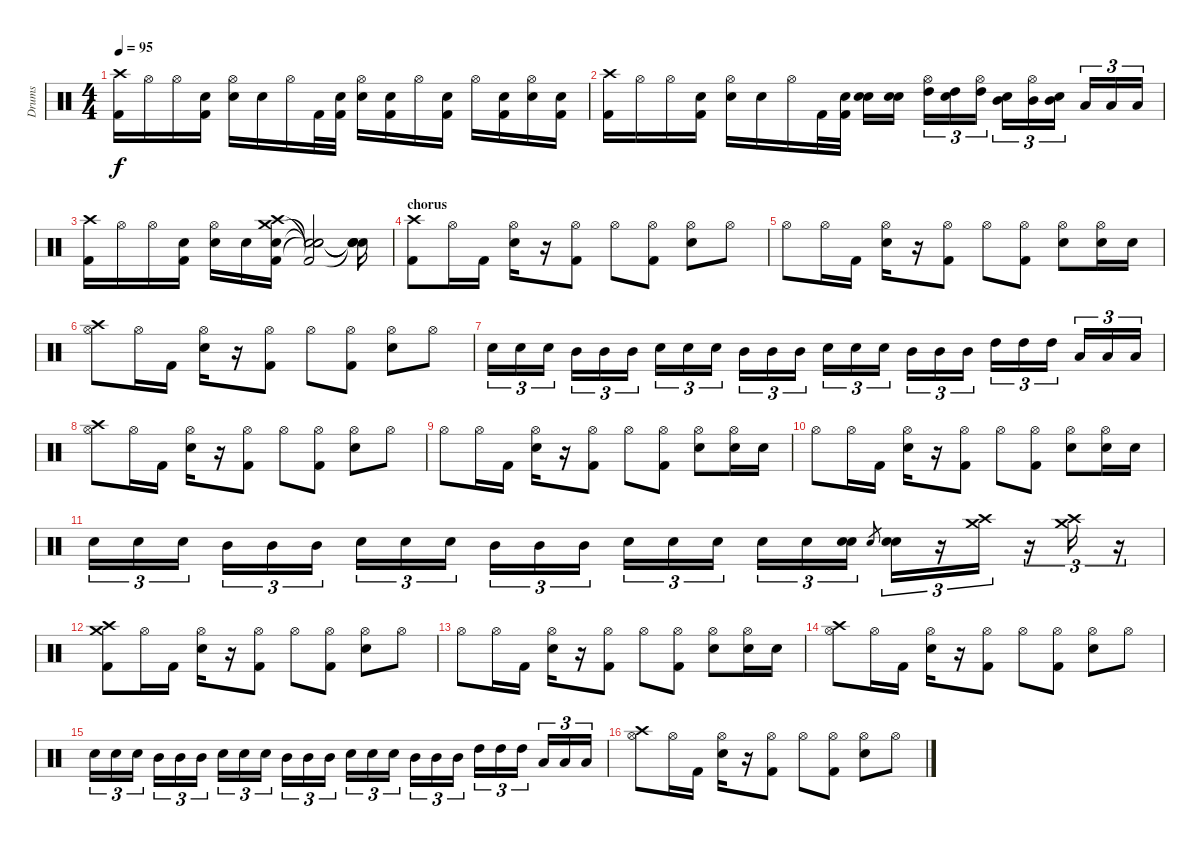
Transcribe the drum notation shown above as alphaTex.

\track ("Drums" "Drums") {instrument percussion}
\staff {score}
\articulation defaults
\ts (4 4)
\tempo 95
\clef neutral
\ks c
("Crash high (hit)" "Kick (hit) 2").16{dy f} "Hi-Hat (open)"{x}.16 "Hi-Hat (open)".16 ("Snare (hit)"{x} "Kick (hit) 2").16 ("Hi-Hat (open)" "Electric Snare (hit)").16 "Snare (hit)"{x}.16 "Hi-Hat (open)".16 "Kick (hit) 2".32 ("Snare (hit)"{x} "Kick (hit) 2").32 ("Hi-Hat (open)" "Electric Snare (hit)").16 ("Snare (hit)"{x} "Kick (hit) 2").16 "Hi-Hat (open)"{x}.16 ("Snare (hit)"{x} "Kick (hit) 2").16 "Hi-Hat (open)"{x}.16 ("Snare (hit)"{x} "Kick (hit) 2").16 ("Hi-Hat (open)"{x} "Electric Snare (hit)").16 ("Snare (hit)"{x} "Kick (hit) 2").16 |
("Crash high (hit)" "Kick (hit) 2").16 "Hi-Hat (open)"{x}.16 "Hi-Hat (open)".16 ("Snare (hit)"{x} "Kick (hit) 2").16 ("Hi-Hat (open)" "Electric Snare (hit)").16 "Snare (hit)"{x}.16 "Hi-Hat (open)".16 "Kick (hit) 2".32 ("Snare (hit)"{x} "Kick (hit) 2").32 ("Electric Snare (hit)" "Electric Snare (hit)").16 ("Snare (hit)"{x} "Electric Snare (hit)").16 ("Hi-Hat (open)"{x} "High Tom (hit)").16{tu (3 2)} ("Snare (hit)"{x} "High Tom (hit)").16{tu (3 2)} ("Hi-Hat (open)"{x} "High Tom (hit)").16{tu (3 2)} ("Snare (hit)"{x} "Mid Tom (hit)").16{tu (3 2)} ("Hi-Hat (open)"{x} "Mid Tom (hit)").16{tu (3 2)} ("Snare (hit)"{x} "Mid Tom (hit)").16{tu (3 2)} "Low Tom (hit)".16{tu (3 2)} "Low Tom (hit)".16{tu (3 2)} "Low Tom (hit)".16{tu (3 2)} |
("Crash high (hit)" "Kick (hit) 2").16 "Hi-Hat (open)"{x}.16 "Hi-Hat (open)".16 ("Snare (hit)"{x} "Kick (hit) 2").16 ("Hi-Hat (open)" "Electric Snare (hit)").16 "Snare (hit)"{x}.16 ("Crash medium (hit)" "Crash high (hit)" "Electric Snare (hit)" "Kick (hit) 2").16 ("Snare (hit)"{t} "Kick (hit) 2"{t} "Snare (hit)"{t} "Snare (hit)"{t}).2 ("Snare (hit)"{t} "Snare (hit)"{t} "Snare (hit)"{t} "Snare (hit)"{t}).16 |
\section ("" "chorus")
("Crash high (hit)" "Kick (hit) 2").8 "Hi-Hat (open)".16 "Kick (hit) 2".16 ("Hi-Hat (open)" "Electric Snare (hit)").16 r.16 ("Hi-Hat (open)" "Kick (hit) 2").8 "Hi-Hat (open)".8 ("Hi-Hat (open)" "Kick (hit) 2").8 ("Hi-Hat (open)" "Electric Snare (hit)").8 "Hi-Hat (open)".8 |
"Hi-Hat (open)".8 "Hi-Hat (open)".16 "Kick (hit) 2".16 ("Hi-Hat (open)" "Electric Snare (hit)").16 r.16 ("Hi-Hat (open)" "Kick (hit) 2").8 "Hi-Hat (open)".8 ("Hi-Hat (open)" "Kick (hit) 2").8 ("Hi-Hat (open)" "Electric Snare (hit)").8 ("Hi-Hat (open)" "Electric Snare (hit)").16 "Electric Snare (hit)".16 |
("Hi-Hat (open)" "Crash high (hit)").8 "Hi-Hat (open)".16 "Kick (hit) 2".16 ("Hi-Hat (open)" "Electric Snare (hit)").16 r.16 ("Hi-Hat (open)" "Kick (hit) 2").8 "Hi-Hat (open)".8 ("Hi-Hat (open)" "Kick (hit) 2").8 ("Hi-Hat (open)" "Electric Snare (hit)").8 "Hi-Hat (open)".8 |
"Electric Snare (hit)".16{tu (3 2)} "Electric Snare (hit)".16{tu (3 2)} "Electric Snare (hit)".16{tu (3 2)} "Mid Tom (hit)".16{tu (3 2)} "Mid Tom (hit)".16{tu (3 2)} "Mid Tom (hit)".16{tu (3 2)} "Electric Snare (hit)".16{tu (3 2)} "Electric Snare (hit)".16{tu (3 2)} "Electric Snare (hit)".16{tu (3 2)} "Mid Tom (hit)".16{tu (3 2)} "Mid Tom (hit)".16{tu (3 2)} "Mid Tom (hit)".16{tu (3 2)} "Electric Snare (hit)".16{tu (3 2)} "Electric Snare (hit)".16{tu (3 2)} "Electric Snare (hit)".16{tu (3 2)} "Mid Tom (hit)".16{tu (3 2)} "Mid Tom (hit)".16{tu (3 2)} "Mid Tom (hit)".16{tu (3 2)} "High Tom (hit)".16{tu (3 2)} "High Tom (hit)".16{tu (3 2)} "High Tom (hit)".16{tu (3 2)} "Low Tom (hit)".16{tu (3 2)} "Low Tom (hit)".16{tu (3 2)} "Low Tom (hit)".16{tu (3 2)} |
("Hi-Hat (open)" "Crash high (hit)").8 "Hi-Hat (open)".16 "Kick (hit) 2".16 ("Hi-Hat (open)" "Electric Snare (hit)").16 r.16 ("Hi-Hat (open)" "Kick (hit) 2").8 "Hi-Hat (open)".8 ("Hi-Hat (open)" "Kick (hit) 2").8 ("Hi-Hat (open)" "Electric Snare (hit)").8 "Hi-Hat (open)".8 |
"Hi-Hat (open)".8 "Hi-Hat (open)".16 "Kick (hit) 2".16 ("Hi-Hat (open)" "Electric Snare (hit)").16 r.16 ("Hi-Hat (open)" "Kick (hit) 2").8 "Hi-Hat (open)".8 ("Hi-Hat (open)" "Kick (hit) 2").8 ("Hi-Hat (open)" "Electric Snare (hit)").8 ("Hi-Hat (open)" "Electric Snare (hit)").16 "Electric Snare (hit)".16 |
"Hi-Hat (open)".8 "Hi-Hat (open)".16 "Kick (hit) 2".16 ("Hi-Hat (open)" "Electric Snare (hit)").16 r.16 ("Hi-Hat (open)" "Kick (hit) 2").8 "Hi-Hat (open)".8 ("Hi-Hat (open)" "Kick (hit) 2").8 ("Hi-Hat (open)" "Electric Snare (hit)").8 ("Hi-Hat (open)" "Electric Snare (hit)").16 "Electric Snare (hit)".16 |
"Electric Snare (hit)".16{tu (3 2)} "Electric Snare (hit)".16{tu (3 2)} "Electric Snare (hit)".16{tu (3 2)} "Mid Tom (hit)".16{tu (3 2)} "Mid Tom (hit)".16{tu (3 2)} "Mid Tom (hit)".16{tu (3 2)} "Electric Snare (hit)".16{tu (3 2)} "Electric Snare (hit)".16{tu (3 2)} "Electric Snare (hit)".16{tu (3 2)} "Mid Tom (hit)".16{tu (3 2)} "Mid Tom (hit)".16{tu (3 2)} "Mid Tom (hit)".16{tu (3 2)} "Electric Snare (hit)".16{tu (3 2)} "Electric Snare (hit)".16{tu (3 2)} "Electric Snare (hit)".16{tu (3 2)} "Electric Snare (hit)".16{tu (3 2)} "Electric Snare (hit)".16{tu (3 2)} ("Electric Snare (hit)" "Electric Snare (hit)").16{tu (3 2)} "Electric Snare (hit)".8{gr} ("Electric Snare (hit)" "Electric Snare (hit)").16{tu (3 2)} r.16{tu (3 2)} ("Crash high (hit)" "Crash medium (hit)").16{tu (3 2)} r.16{tu (3 2)} ("Crash high (hit)" "Crash medium (hit)").16{tu (3 2)} r.16{tu (3 2)} |
("Crash medium (hit)" "Crash high (hit)" "Kick (hit) 2").8 "Hi-Hat (open)".16 "Kick (hit) 2".16 ("Hi-Hat (open)" "Electric Snare (hit)").16 r.16 ("Hi-Hat (open)" "Kick (hit) 2").8 "Hi-Hat (open)".8 ("Hi-Hat (open)" "Kick (hit) 2").8 ("Hi-Hat (open)" "Electric Snare (hit)").8 "Hi-Hat (open)".8 |
"Hi-Hat (open)".8 "Hi-Hat (open)".16 "Kick (hit) 2".16 ("Hi-Hat (open)" "Electric Snare (hit)").16 r.16 ("Hi-Hat (open)" "Kick (hit) 2").8 "Hi-Hat (open)".8 ("Hi-Hat (open)" "Kick (hit) 2").8 ("Hi-Hat (open)" "Electric Snare (hit)").8 ("Hi-Hat (open)" "Electric Snare (hit)").16 "Electric Snare (hit)".16 |
("Hi-Hat (open)" "Crash high (hit)").8 "Hi-Hat (open)".16 "Kick (hit) 2".16 ("Hi-Hat (open)" "Electric Snare (hit)").16 r.16 ("Hi-Hat (open)" "Kick (hit) 2").8 "Hi-Hat (open)".8 ("Hi-Hat (open)" "Kick (hit) 2").8 ("Hi-Hat (open)" "Electric Snare (hit)").8 "Hi-Hat (open)".8 |
"Electric Snare (hit)".16{tu (3 2)} "Electric Snare (hit)".16{tu (3 2)} "Electric Snare (hit)".16{tu (3 2)} "Mid Tom (hit)".16{tu (3 2)} "Mid Tom (hit)".16{tu (3 2)} "Mid Tom (hit)".16{tu (3 2)} "Electric Snare (hit)".16{tu (3 2)} "Electric Snare (hit)".16{tu (3 2)} "Electric Snare (hit)".16{tu (3 2)} "Mid Tom (hit)".16{tu (3 2)} "Mid Tom (hit)".16{tu (3 2)} "Mid Tom (hit)".16{tu (3 2)} "Electric Snare (hit)".16{tu (3 2)} "Electric Snare (hit)".16{tu (3 2)} "Electric Snare (hit)".16{tu (3 2)} "Mid Tom (hit)".16{tu (3 2)} "Mid Tom (hit)".16{tu (3 2)} "Mid Tom (hit)".16{tu (3 2)} "High Tom (hit)".16{tu (3 2)} "High Tom (hit)".16{tu (3 2)} "High Tom (hit)".16{tu (3 2)} "Low Tom (hit)".16{tu (3 2)} "Low Tom (hit)".16{tu (3 2)} "Low Tom (hit)".16{tu (3 2)} |
("Hi-Hat (open)" "Crash high (hit)").8 "Hi-Hat (open)".16 "Kick (hit) 2".16 ("Hi-Hat (open)" "Electric Snare (hit)").16 r.16 ("Hi-Hat (open)" "Kick (hit) 2").8 "Hi-Hat (open)".8 ("Hi-Hat (open)" "Kick (hit) 2").8 ("Hi-Hat (open)" "Electric Snare (hit)").8 "Hi-Hat (open)".8
